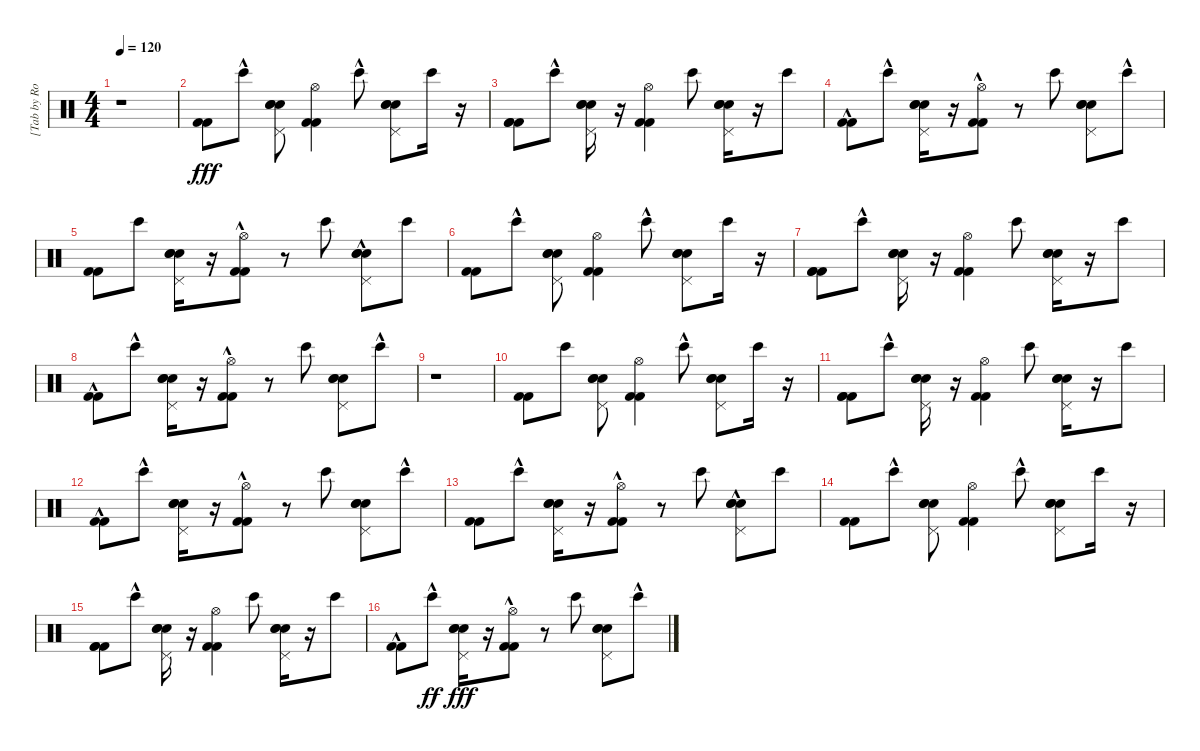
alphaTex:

\track ("[Tab by Rodrigo Takahashi]" "[Tab by Ro") {instrument percussion}
\staff {score}
\articulation defaults
\ts (4 4)
\tempo 120
\clef neutral
\ks c
r.1{dy fff} |
("Kick (hit) 2" "Kick (hit) 2").8 "Bongo High (hit)"{hac}.8 ("Hand Clap (hit)" "Pedal Hi-Hat (hit)" "Electric Snare (hit)" "Snare (hit) 2").8 ("Kick (hit) 2" "Kick (hit) 2" "Hi-Hat (open)").4 "Bongo High (hit)"{hac}.8 ("Pedal Hi-Hat (hit)" "Electric Snare (hit)" "Snare (hit) 2" "Hand Clap (hit)").8 "Bongo High (hit)".16 r.16 |
("Kick (hit) 2" "Kick (hit) 2" "Kick (hit) 2").8 "Bongo High (hit)"{hac}.8 ("Pedal Hi-Hat (hit)" "Electric Snare (hit)" "Snare (hit) 2" "Hand Clap (hit)").16 r.16 ("Kick (hit) 2" "Kick (hit) 2" "Hi-Hat (open)").4 "Bongo High (hit)".8 ("Pedal Hi-Hat (hit)" "Electric Snare (hit)" "Snare (hit) 2" "Hand Clap (hit)").16 r.16 "Bongo High (hit)".8 |
("Kick (hit) 2"{hac} "Kick (hit) 2"{hac}).8 "Bongo High (hit)"{hac}.8 ("Pedal Hi-Hat (hit)" "Electric Snare (hit)" "Snare (hit) 2" "Hand Clap (hit)").16 r.16 ("Kick (hit) 2"{hac} "Kick (hit) 2"{hac} "Hi-Hat (open)").8 r.8 "Bongo High (hit)".8 ("Snare (hit) 2" "Pedal Hi-Hat (hit)" "Electric Snare (hit)" "Hand Clap (hit)").8 "Bongo High (hit)"{hac}.8 |
("Kick (hit) 2" "Kick (hit) 2").8 "Bongo High (hit)".8 ("Pedal Hi-Hat (hit)" "Electric Snare (hit)" "Snare (hit) 2" "Hand Clap (hit)").16 r.16 ("Kick (hit) 2"{hac} "Kick (hit) 2"{hac} "Hi-Hat (open)").8 r.8 "Bongo High (hit)".8 ("Snare (hit) 2" "Pedal Hi-Hat (hit)" "Electric Snare (hit)"{hac} "Hand Clap (hit)").8 "Bongo High (hit)".8 |
("Kick (hit) 2" "Kick (hit) 2").8 "Bongo High (hit)"{hac}.8 ("Hand Clap (hit)" "Pedal Hi-Hat (hit)" "Electric Snare (hit)" "Snare (hit) 2").8 ("Kick (hit) 2" "Kick (hit) 2" "Hi-Hat (open)").4 "Bongo High (hit)"{hac}.8 ("Pedal Hi-Hat (hit)" "Electric Snare (hit)" "Snare (hit) 2" "Hand Clap (hit)").8 "Bongo High (hit)".16 r.16 |
("Kick (hit) 2" "Kick (hit) 2" "Kick (hit) 2").8 "Bongo High (hit)"{hac}.8 ("Pedal Hi-Hat (hit)" "Electric Snare (hit)" "Snare (hit) 2" "Hand Clap (hit)").16 r.16 ("Kick (hit) 2" "Kick (hit) 2" "Hi-Hat (open)").4 "Bongo High (hit)".8 ("Pedal Hi-Hat (hit)" "Electric Snare (hit)" "Snare (hit) 2" "Hand Clap (hit)").16 r.16 "Bongo High (hit)".8 |
("Kick (hit) 2"{hac} "Kick (hit) 2"{hac}).8 "Bongo High (hit)"{hac}.8 ("Pedal Hi-Hat (hit)" "Electric Snare (hit)" "Snare (hit) 2" "Hand Clap (hit)").16 r.16 ("Kick (hit) 2"{hac} "Kick (hit) 2"{hac} "Hi-Hat (open)").8 r.8 "Bongo High (hit)".8 ("Snare (hit) 2" "Pedal Hi-Hat (hit)" "Electric Snare (hit)" "Hand Clap (hit)").8 "Bongo High (hit)"{hac}.8 |
r.1 |
("Kick (hit) 2" "Kick (hit) 2").8 "Bongo High (hit)".8 ("Hand Clap (hit)" "Pedal Hi-Hat (hit)" "Electric Snare (hit)" "Snare (hit) 2").8 ("Kick (hit) 2" "Kick (hit) 2" "Hi-Hat (open)").4 "Bongo High (hit)"{hac}.8 ("Pedal Hi-Hat (hit)" "Electric Snare (hit)" "Snare (hit) 2" "Hand Clap (hit)").8 "Bongo High (hit)".16 r.16 |
("Kick (hit) 2" "Kick (hit) 2" "Kick (hit) 2").8 "Bongo High (hit)"{hac}.8 ("Pedal Hi-Hat (hit)" "Electric Snare (hit)" "Snare (hit) 2" "Hand Clap (hit)").16 r.16 ("Kick (hit) 2" "Kick (hit) 2" "Hi-Hat (open)").4 "Bongo High (hit)".8 ("Pedal Hi-Hat (hit)" "Electric Snare (hit)" "Snare (hit) 2" "Hand Clap (hit)").16 r.16 "Bongo High (hit)".8 |
("Kick (hit) 2"{hac} "Kick (hit) 2"{hac}).8 "Bongo High (hit)"{hac}.8 ("Pedal Hi-Hat (hit)" "Electric Snare (hit)" "Snare (hit) 2" "Hand Clap (hit)").16 r.16 ("Kick (hit) 2"{hac} "Kick (hit) 2"{hac} "Hi-Hat (open)").8 r.8 "Bongo High (hit)".8 ("Snare (hit) 2" "Pedal Hi-Hat (hit)" "Electric Snare (hit)" "Hand Clap (hit)").8 "Bongo High (hit)"{hac}.8 |
("Kick (hit) 2" "Kick (hit) 2").8 "Bongo High (hit)"{hac}.8 ("Pedal Hi-Hat (hit)" "Electric Snare (hit)" "Snare (hit) 2" "Hand Clap (hit)").16 r.16 ("Kick (hit) 2"{hac} "Kick (hit) 2"{hac} "Hi-Hat (open)").8 r.8 "Bongo High (hit)".8 ("Snare (hit) 2" "Pedal Hi-Hat (hit)" "Electric Snare (hit)"{hac} "Hand Clap (hit)").8 "Bongo High (hit)".8 |
("Kick (hit) 2" "Kick (hit) 2").8 "Bongo High (hit)"{hac}.8 ("Hand Clap (hit)" "Pedal Hi-Hat (hit)" "Electric Snare (hit)" "Snare (hit) 2").8 ("Kick (hit) 2" "Kick (hit) 2" "Hi-Hat (open)").4 "Bongo High (hit)"{hac}.8 ("Pedal Hi-Hat (hit)" "Electric Snare (hit)" "Snare (hit) 2" "Hand Clap (hit)").8 "Bongo High (hit)".16 r.16 |
("Kick (hit) 2" "Kick (hit) 2" "Kick (hit) 2").8 "Bongo High (hit)"{hac}.8 ("Pedal Hi-Hat (hit)" "Electric Snare (hit)" "Snare (hit) 2" "Hand Clap (hit)").16 r.16 ("Kick (hit) 2" "Kick (hit) 2" "Hi-Hat (open)").4 "Bongo High (hit)".8 ("Pedal Hi-Hat (hit)" "Electric Snare (hit)" "Snare (hit) 2" "Hand Clap (hit)").16 r.16 "Bongo High (hit)".8 |
("Kick (hit) 2"{hac} "Kick (hit) 2"{hac}).8 "Bongo High (hit)"{hac}.8{dy ff} ("Pedal Hi-Hat (hit)" "Electric Snare (hit)" "Snare (hit) 2" "Hand Clap (hit)").16{dy fff} r.16 ("Kick (hit) 2"{hac} "Kick (hit) 2"{hac} "Hi-Hat (open)").8 r.8 "Bongo High (hit)".8 ("Snare (hit) 2" "Pedal Hi-Hat (hit)" "Electric Snare (hit)" "Hand Clap (hit)").8 "Bongo High (hit)"{hac}.8
